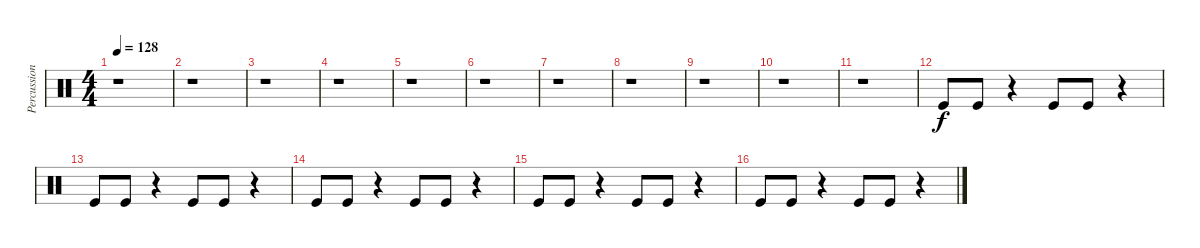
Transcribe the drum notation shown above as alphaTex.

\track ("Percussions" "Percussion") {instrument percussion}
\staff {score}
\articulation defaults
\ts (4 4)
\tempo 128
\clef neutral
\ks c
r.1{dy f} |
r.1 |
r.1 |
r.1 |
r.1 |
r.1 |
r.1 |
r.1 |
r.1 |
r.1 |
r.1 |
"Kick (hit)".8 "Kick (hit)".8 r.4 "Kick (hit)".8 "Kick (hit)".8 r.4 |
"Kick (hit)".8 "Kick (hit)".8 r.4 "Kick (hit)".8 "Kick (hit)".8 r.4 |
"Kick (hit)".8 "Kick (hit)".8 r.4 "Kick (hit)".8 "Kick (hit)".8 r.4 |
"Kick (hit)".8 "Kick (hit)".8 r.4 "Kick (hit)".8 "Kick (hit)".8 r.4 |
"Kick (hit)".8 "Kick (hit)".8 r.4 "Kick (hit)".8 "Kick (hit)".8 r.4
